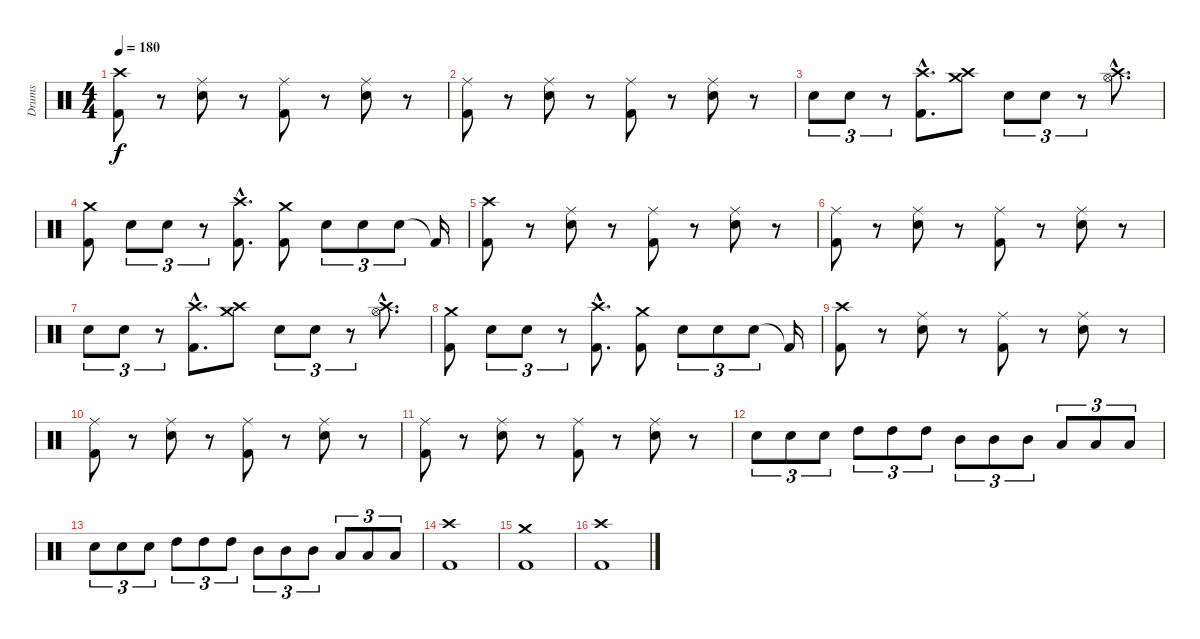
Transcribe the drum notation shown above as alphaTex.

\track ("Drums" "Drums") {instrument percussion}
\staff {score}
\articulation defaults
\ts (4 4)
\tempo 180
\clef neutral
\ks c
("Crash high (hit)" "Kick (hit) 2").8{dy f} r.8 ("Ride (middle)" "Electric Snare (hit)").8 r.8 ("Ride (middle)" "Kick (hit) 2").8 r.8 ("Ride (middle)" "Electric Snare (hit)").8 r.8 |
("Ride (middle)" "Kick (hit) 2").8 r.8 ("Ride (middle)" "Electric Snare (hit)").8 r.8 ("Ride (middle)" "Kick (hit) 2").8 r.8 ("Ride (middle)" "Electric Snare (hit)").8 r.8 |
"Electric Snare (hit)".8{tu (3 2)} "Electric Snare (hit)".8{tu (3 2)} r.8{tu (3 2)} ("Crash high (hit)"{hac} "Kick (hit) 2"{hac}).8{d} ("Crash medium (hit)" "Crash high (hit)").8 "Electric Snare (hit)".8{tu (3 2)} "Electric Snare (hit)".8{tu (3 2)} r.8{tu (3 2)} ("Crash high (hit)"{hac} "Hi-Hat (open)"{hac}).8{d} |
("Crash medium (hit)" "Kick (hit) 2").8 "Electric Snare (hit)".8{tu (3 2)} "Electric Snare (hit)".8{tu (3 2)} r.8{tu (3 2)} ("Crash high (hit)"{hac} "Kick (hit) 2"{hac}).8{d} ("Crash medium (hit)" "Kick (hit) 2").8 "Electric Snare (hit)".8{tu (3 2)} "Electric Snare (hit)".8{tu (3 2)} "Electric Snare (hit)".8{tu (3 2)} "Kick (hit) 2"{t}.16 |
("Crash high (hit)" "Kick (hit) 2").8 r.8 ("Ride (middle)" "Electric Snare (hit)").8 r.8 ("Ride (middle)" "Kick (hit) 2").8 r.8 ("Ride (middle)" "Electric Snare (hit)").8 r.8 |
("Ride (middle)" "Kick (hit) 2").8 r.8 ("Ride (middle)" "Electric Snare (hit)").8 r.8 ("Ride (middle)" "Kick (hit) 2").8 r.8 ("Ride (middle)" "Electric Snare (hit)").8 r.8 |
"Electric Snare (hit)".8{tu (3 2)} "Electric Snare (hit)".8{tu (3 2)} r.8{tu (3 2)} ("Crash high (hit)"{hac} "Kick (hit) 2"{hac}).8{d} ("Crash medium (hit)" "Crash high (hit)").8 "Electric Snare (hit)".8{tu (3 2)} "Electric Snare (hit)".8{tu (3 2)} r.8{tu (3 2)} ("Crash high (hit)"{hac} "Hi-Hat (open)"{hac}).8{d} |
("Crash medium (hit)" "Kick (hit) 2").8 "Electric Snare (hit)".8{tu (3 2)} "Electric Snare (hit)".8{tu (3 2)} r.8{tu (3 2)} ("Crash high (hit)"{hac} "Kick (hit) 2"{hac}).8{d} ("Crash medium (hit)" "Kick (hit) 2").8 "Electric Snare (hit)".8{tu (3 2)} "Electric Snare (hit)".8{tu (3 2)} "Electric Snare (hit)".8{tu (3 2)} "Kick (hit) 2"{t}.16 |
("Crash high (hit)" "Kick (hit) 2").8 r.8 ("Ride (middle)" "Electric Snare (hit)").8 r.8 ("Ride (middle)" "Kick (hit) 2").8 r.8 ("Ride (middle)" "Electric Snare (hit)").8 r.8 |
("Ride (middle)" "Kick (hit) 2").8 r.8 ("Ride (middle)" "Electric Snare (hit)").8 r.8 ("Ride (middle)" "Kick (hit) 2").8 r.8 ("Ride (middle)" "Electric Snare (hit)").8 r.8 |
("Ride (middle)" "Kick (hit) 2").8 r.8 ("Ride (middle)" "Electric Snare (hit)").8 r.8 ("Ride (middle)" "Kick (hit) 2").8 r.8 ("Ride (middle)" "Electric Snare (hit)").8 r.8 |
"Electric Snare (hit)".8{tu (3 2)} "Electric Snare (hit)".8{tu (3 2)} "Electric Snare (hit)".8{tu (3 2)} "High Tom (hit)".8{tu (3 2)} "High Tom (hit)".8{tu (3 2)} "High Tom (hit)".8{tu (3 2)} "Mid Tom (hit)".8{tu (3 2)} "Mid Tom (hit)".8{tu (3 2)} "Mid Tom (hit)".8{tu (3 2)} "Low Tom (hit)".8{tu (3 2)} "Low Tom (hit)".8{tu (3 2)} "Low Tom (hit)".8{tu (3 2)} |
"Electric Snare (hit)".8{tu (3 2)} "Electric Snare (hit)".8{tu (3 2)} "Electric Snare (hit)".8{tu (3 2)} "High Tom (hit)".8{tu (3 2)} "High Tom (hit)".8{tu (3 2)} "High Tom (hit)".8{tu (3 2)} "Mid Tom (hit)".8{tu (3 2)} "Mid Tom (hit)".8{tu (3 2)} "Mid Tom (hit)".8{tu (3 2)} "Low Tom (hit)".8{tu (3 2)} "Low Tom (hit)".8{tu (3 2)} "Low Tom (hit)".8{tu (3 2)} |
("Crash high (hit)" "Kick (hit) 2").1 |
("Crash medium (hit)" "Kick (hit) 2").1 |
("Crash high (hit)" "Kick (hit) 2").1
